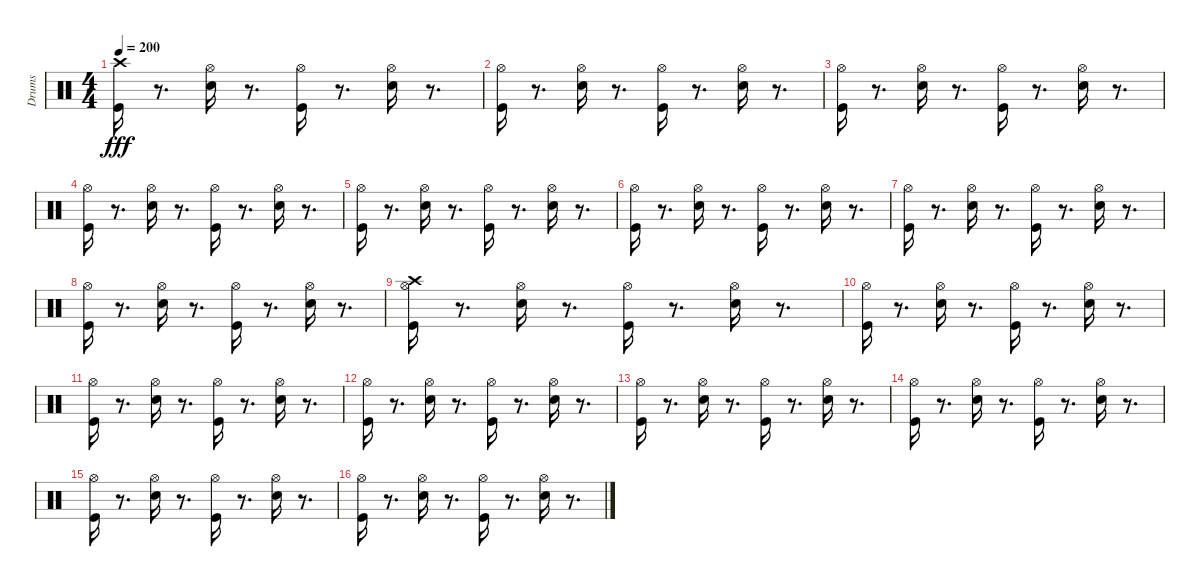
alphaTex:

\track ("Drums" "Drums") {instrument percussion}
\staff {score}
\articulation defaults
\ts (4 4)
\tempo 200
\clef neutral
\ks c
("Crash high (hit)" "Kick (hit)").16{dy fff} r.8{d} ("Hi-Hat (open)" "Snare (hit) 2").16 r.8{d} ("Hi-Hat (open)" "Kick (hit)").16 r.8{d} ("Snare (hit) 2" "Hi-Hat (open)").16 r.8{d} |
("Hi-Hat (open)" "Kick (hit)").16 r.8{d} ("Snare (hit) 2" "Hi-Hat (open)").16 r.8{d} ("Hi-Hat (open)" "Kick (hit)").16 r.8{d} ("Hi-Hat (open)" "Snare (hit) 2").16 r.8{d} |
("Hi-Hat (open)" "Kick (hit)").16 r.8{d} ("Snare (hit) 2" "Hi-Hat (open)").16 r.8{d} ("Kick (hit)" "Hi-Hat (open)").16 r.8{d} ("Hi-Hat (open)" "Snare (hit) 2").16 r.8{d} |
("Kick (hit)" "Hi-Hat (open)").16 r.8{d} ("Hi-Hat (open)" "Snare (hit) 2").16 r.8{d} ("Hi-Hat (open)" "Kick (hit)").16 r.8{d} ("Hi-Hat (open)" "Snare (hit) 2").16 r.8{d} |
("Hi-Hat (open)" "Kick (hit)").16 r.8{d} ("Snare (hit) 2" "Hi-Hat (open)").16 r.8{d} ("Hi-Hat (open)" "Kick (hit)").16 r.8{d} ("Snare (hit) 2" "Hi-Hat (open)").16 r.8{d} |
("Hi-Hat (open)" "Kick (hit)").16 r.8{d} ("Hi-Hat (open)" "Snare (hit) 2").16 r.8{d} ("Kick (hit)" "Hi-Hat (open)").16 r.8{d} ("Snare (hit) 2" "Hi-Hat (open)").16 r.8{d} |
("Hi-Hat (open)" "Kick (hit)").16 r.8{d} ("Hi-Hat (open)" "Snare (hit) 2").16 r.8{d} ("Kick (hit)" "Hi-Hat (open)").16 r.8{d} ("Hi-Hat (open)" "Snare (hit) 2").16 r.8{d} |
("Kick (hit)" "Hi-Hat (open)").16 r.8{d} ("Snare (hit) 2" "Hi-Hat (open)").16 r.8{d} ("Hi-Hat (open)" "Kick (hit)").16 r.8{d} ("Snare (hit) 2" "Hi-Hat (open)").16 r.8{d} |
("Crash high (hit)" "Hi-Hat (open)" "Kick (hit)").16 r.8{d} ("Snare (hit) 2" "Hi-Hat (open)").16 r.8{d} ("Hi-Hat (open)" "Kick (hit)").16 r.8{d} ("Hi-Hat (open)" "Snare (hit) 2").16 r.8{d} |
("Hi-Hat (open)" "Kick (hit)").16 r.8{d} ("Snare (hit) 2" "Hi-Hat (open)").16 r.8{d} ("Hi-Hat (open)" "Kick (hit)").16 r.8{d} ("Hi-Hat (open)" "Snare (hit) 2").16 r.8{d} |
("Hi-Hat (open)" "Kick (hit)").16 r.8{d} ("Hi-Hat (open)" "Snare (hit) 2").16 r.8{d} ("Kick (hit)" "Hi-Hat (open)").16 r.8{d} ("Hi-Hat (open)" "Snare (hit) 2").16 r.8{d} |
("Kick (hit)" "Hi-Hat (open)").16 r.8{d} ("Hi-Hat (open)" "Snare (hit) 2").16 r.8{d} ("Hi-Hat (open)" "Kick (hit)").16 r.8{d} ("Hi-Hat (open)" "Snare (hit) 2").16 r.8{d} |
("Hi-Hat (open)" "Kick (hit)").16 r.8{d} ("Snare (hit) 2" "Hi-Hat (open)").16 r.8{d} ("Hi-Hat (open)" "Kick (hit)").16 r.8{d} ("Snare (hit) 2" "Hi-Hat (open)").16 r.8{d} |
("Hi-Hat (open)" "Kick (hit)").16 r.8{d} ("Hi-Hat (open)" "Snare (hit) 2").16 r.8{d} ("Kick (hit)" "Hi-Hat (open)").16 r.8{d} ("Hi-Hat (open)" "Snare (hit) 2").16 r.8{d} |
("Hi-Hat (open)" "Kick (hit)").16 r.8{d} ("Hi-Hat (open)" "Snare (hit) 2").16 r.8{d} ("Kick (hit)" "Hi-Hat (open)").16 r.8{d} ("Snare (hit) 2" "Hi-Hat (open)").16 r.8{d} |
("Kick (hit)" "Hi-Hat (open)").16 r.8{d} ("Hi-Hat (open)" "Snare (hit) 2").16 r.8{d} ("Hi-Hat (open)" "Kick (hit)").16 r.8{d} ("Snare (hit) 2" "Hi-Hat (open)").16 r.8{d}
